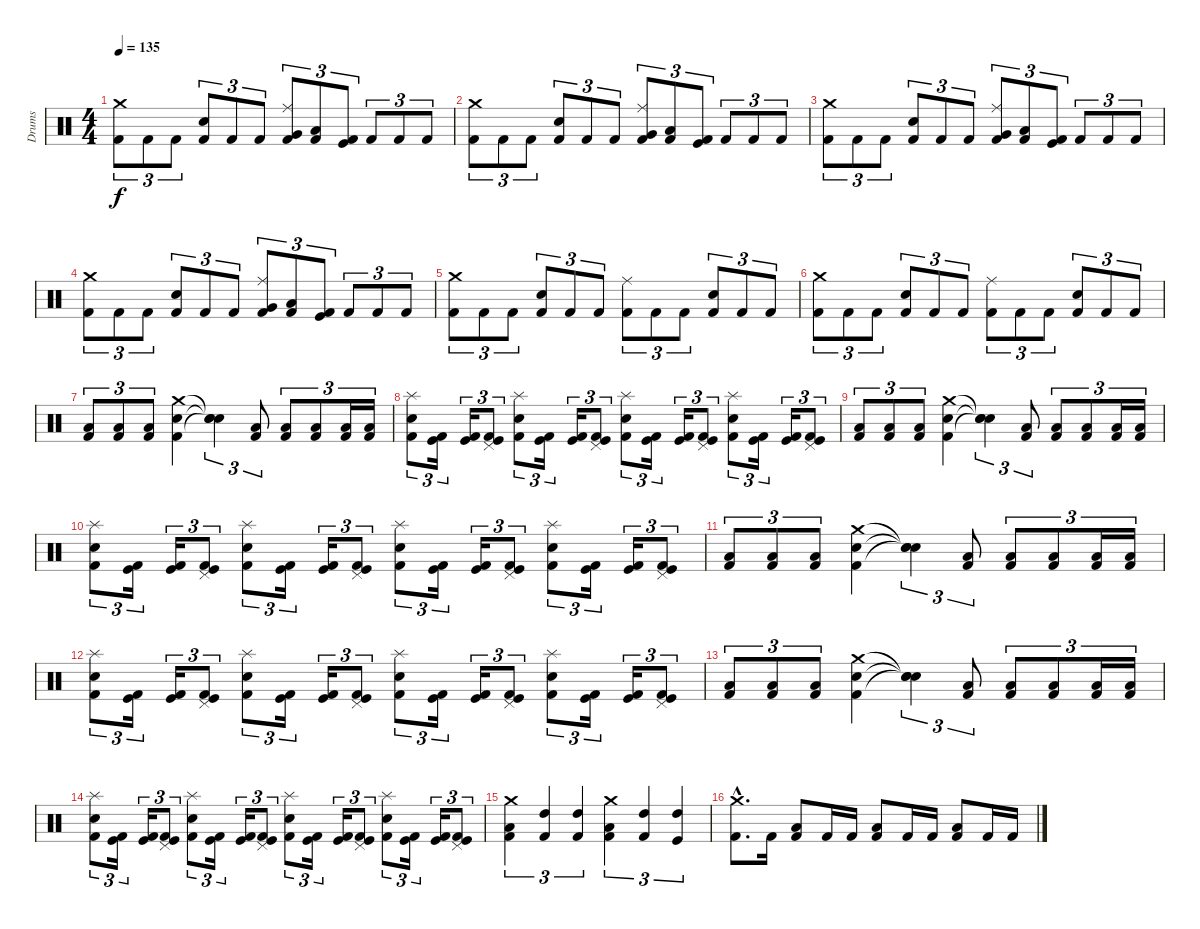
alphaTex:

\track ("Drums" "Drums") {instrument percussion}
\staff {score}
\articulation defaults
\ts (4 4)
\tempo 135
\clef neutral
\ks c
("Crash medium (hit)" "Kick (hit) 2").8{tu (3 2) dy f} "Kick (hit) 2".8{tu (3 2)} "Kick (hit) 2".8{tu (3 2)} ("Snare (hit) 2" "Kick (hit) 2").8{tu (3 2)} "Kick (hit) 2".8{tu (3 2)} "Kick (hit) 2".8{tu (3 2)} ("Ride (middle)" "Very Low Tom (hit)" "Kick (hit) 2").8{tu (3 2)} ("Low Floor Tom (hit)" "Kick (hit) 2").8{tu (3 2)} ("Kick (hit)" "Kick (hit) 2").8{tu (3 2)} "Kick (hit) 2".8{tu (3 2)} "Kick (hit) 2".8{tu (3 2)} "Kick (hit) 2".8{tu (3 2)} |
("Crash medium (hit)" "Kick (hit) 2").8{tu (3 2)} "Kick (hit) 2".8{tu (3 2)} "Kick (hit) 2".8{tu (3 2)} ("Snare (hit) 2" "Kick (hit) 2").8{tu (3 2)} "Kick (hit) 2".8{tu (3 2)} "Kick (hit) 2".8{tu (3 2)} ("Ride (middle)" "Very Low Tom (hit)" "Kick (hit) 2").8{tu (3 2)} ("Low Floor Tom (hit)" "Kick (hit) 2").8{tu (3 2)} ("Kick (hit)" "Kick (hit) 2").8{tu (3 2)} "Kick (hit) 2".8{tu (3 2)} "Kick (hit) 2".8{tu (3 2)} "Kick (hit) 2".8{tu (3 2)} |
("Crash medium (hit)" "Kick (hit) 2").8{tu (3 2)} "Kick (hit) 2".8{tu (3 2)} "Kick (hit) 2".8{tu (3 2)} ("Snare (hit) 2" "Kick (hit) 2").8{tu (3 2)} "Kick (hit) 2".8{tu (3 2)} "Kick (hit) 2".8{tu (3 2)} ("Ride (middle)" "Very Low Tom (hit)" "Kick (hit) 2").8{tu (3 2)} ("Low Floor Tom (hit)" "Kick (hit) 2").8{tu (3 2)} ("Kick (hit)" "Kick (hit) 2").8{tu (3 2)} "Kick (hit) 2".8{tu (3 2)} "Kick (hit) 2".8{tu (3 2)} "Kick (hit) 2".8{tu (3 2)} |
("Crash medium (hit)" "Kick (hit) 2").8{tu (3 2)} "Kick (hit) 2".8{tu (3 2)} "Kick (hit) 2".8{tu (3 2)} ("Snare (hit) 2" "Kick (hit) 2").8{tu (3 2)} "Kick (hit) 2".8{tu (3 2)} "Kick (hit) 2".8{tu (3 2)} ("Ride (middle)" "Very Low Tom (hit)" "Kick (hit) 2").8{tu (3 2)} ("Low Floor Tom (hit)" "Kick (hit) 2").8{tu (3 2)} ("Kick (hit)" "Kick (hit) 2").8{tu (3 2)} "Kick (hit) 2".8{tu (3 2)} "Kick (hit) 2".8{tu (3 2)} "Kick (hit) 2".8{tu (3 2)} |
("Crash medium (hit)" "Kick (hit) 2").8{tu (3 2)} "Kick (hit) 2".8{tu (3 2)} "Kick (hit) 2".8{tu (3 2)} ("Snare (hit) 2" "Kick (hit) 2").8{tu (3 2)} "Kick (hit) 2".8{tu (3 2)} "Kick (hit) 2".8{tu (3 2)} ("Ride (middle)" "Kick (hit) 2").8{tu (3 2)} "Kick (hit) 2".8{tu (3 2)} "Kick (hit) 2".8{tu (3 2)} ("Snare (hit) 2" "Kick (hit) 2").8{tu (3 2)} "Kick (hit) 2".8{tu (3 2)} "Kick (hit) 2".8{tu (3 2)} |
("Crash medium (hit)" "Kick (hit) 2").8{tu (3 2)} "Kick (hit) 2".8{tu (3 2)} "Kick (hit) 2".8{tu (3 2)} ("Snare (hit) 2" "Kick (hit) 2").8{tu (3 2)} "Kick (hit) 2".8{tu (3 2)} "Kick (hit) 2".8{tu (3 2)} ("Ride (middle)" "Kick (hit) 2").8{tu (3 2)} "Kick (hit) 2".8{tu (3 2)} "Kick (hit) 2".8{tu (3 2)} ("Snare (hit) 2" "Kick (hit) 2").8{tu (3 2)} "Kick (hit) 2".8{tu (3 2)} "Kick (hit) 2".8{tu (3 2)} |
("Low Floor Tom (hit)" "Kick (hit) 2").8{tu (3 2)} ("Low Floor Tom (hit)" "Kick (hit) 2").8{tu (3 2)} ("Low Floor Tom (hit)" "Kick (hit) 2").8{tu (3 2)} ("Crash medium (hit)" "Snare (hit) 2" "Kick (hit) 2").4 ("Snare (hit)"{t} "Snare (hit)"{t} "Snare (hit)"{t}).4{tu (3 2)} ("Low Floor Tom (hit)" "Kick (hit) 2").8{tu (3 2)} ("Low Floor Tom (hit)" "Kick (hit) 2").8{tu (3 2)} ("Low Floor Tom (hit)" "Kick (hit) 2").8{tu (3 2)} ("Low Floor Tom (hit)" "Kick (hit) 2").16{tu (3 2)} ("Low Floor Tom (hit)" "Kick (hit) 2").16{tu (3 2)} |
("Splash (hit)" "Snare (hit) 2" "Kick (hit) 2").8{tu (3 2)} ("Kick (hit)" "Kick (hit) 2").16{tu (3 2)} ("Kick (hit)" "Kick (hit) 2").16{tu (3 2)} ("Pedal Hi-Hat (hit)" "Kick (hit)" "Kick (hit) 2").8{tu (3 2)} ("Splash (hit)" "Snare (hit) 2" "Kick (hit) 2").8{tu (3 2)} ("Kick (hit)" "Kick (hit) 2").16{tu (3 2)} ("Kick (hit)" "Kick (hit) 2").16{tu (3 2)} ("Pedal Hi-Hat (hit)" "Kick (hit)" "Kick (hit) 2").8{tu (3 2)} ("Splash (hit)" "Snare (hit) 2" "Kick (hit) 2").8{tu (3 2)} ("Kick (hit)" "Kick (hit) 2").16{tu (3 2)} ("Kick (hit)" "Kick (hit) 2").16{tu (3 2)} ("Pedal Hi-Hat (hit)" "Kick (hit)" "Kick (hit) 2").8{tu (3 2)} ("Splash (hit)" "Snare (hit) 2" "Kick (hit) 2").8{tu (3 2)} ("Kick (hit)" "Kick (hit) 2").16{tu (3 2)} ("Kick (hit)" "Kick (hit) 2").16{tu (3 2)} ("Pedal Hi-Hat (hit)" "Kick (hit)" "Kick (hit) 2").8{tu (3 2)} |
("Low Floor Tom (hit)" "Kick (hit) 2").8{tu (3 2)} ("Low Floor Tom (hit)" "Kick (hit) 2").8{tu (3 2)} ("Low Floor Tom (hit)" "Kick (hit) 2").8{tu (3 2)} ("Crash medium (hit)" "Snare (hit) 2" "Kick (hit) 2").4 ("Snare (hit)"{t} "Snare (hit)"{t} "Snare (hit)"{t}).4{tu (3 2)} ("Low Floor Tom (hit)" "Kick (hit) 2").8{tu (3 2)} ("Low Floor Tom (hit)" "Kick (hit) 2").8{tu (3 2)} ("Low Floor Tom (hit)" "Kick (hit) 2").8{tu (3 2)} ("Low Floor Tom (hit)" "Kick (hit) 2").16{tu (3 2)} ("Low Floor Tom (hit)" "Kick (hit) 2").16{tu (3 2)} |
("Splash (hit)" "Snare (hit) 2" "Kick (hit) 2").8{tu (3 2)} ("Kick (hit)" "Kick (hit) 2").16{tu (3 2)} ("Kick (hit)" "Kick (hit) 2").16{tu (3 2)} ("Pedal Hi-Hat (hit)" "Kick (hit)" "Kick (hit) 2").8{tu (3 2)} ("Splash (hit)" "Snare (hit) 2" "Kick (hit) 2").8{tu (3 2)} ("Kick (hit)" "Kick (hit) 2").16{tu (3 2)} ("Kick (hit)" "Kick (hit) 2").16{tu (3 2)} ("Pedal Hi-Hat (hit)" "Kick (hit)" "Kick (hit) 2").8{tu (3 2)} ("Splash (hit)" "Snare (hit) 2" "Kick (hit) 2").8{tu (3 2)} ("Kick (hit)" "Kick (hit) 2").16{tu (3 2)} ("Kick (hit)" "Kick (hit) 2").16{tu (3 2)} ("Pedal Hi-Hat (hit)" "Kick (hit)" "Kick (hit) 2").8{tu (3 2)} ("Splash (hit)" "Snare (hit) 2" "Kick (hit) 2").8{tu (3 2)} ("Kick (hit)" "Kick (hit) 2").16{tu (3 2)} ("Kick (hit)" "Kick (hit) 2").16{tu (3 2)} ("Pedal Hi-Hat (hit)" "Kick (hit)" "Kick (hit) 2").8{tu (3 2)} |
("Low Floor Tom (hit)" "Kick (hit) 2").8{tu (3 2)} ("Low Floor Tom (hit)" "Kick (hit) 2").8{tu (3 2)} ("Low Floor Tom (hit)" "Kick (hit) 2").8{tu (3 2)} ("Crash medium (hit)" "Snare (hit) 2" "Kick (hit) 2").4 ("Snare (hit)"{t} "Snare (hit)"{t} "Snare (hit)"{t}).4{tu (3 2)} ("Low Floor Tom (hit)" "Kick (hit) 2").8{tu (3 2)} ("Low Floor Tom (hit)" "Kick (hit) 2").8{tu (3 2)} ("Low Floor Tom (hit)" "Kick (hit) 2").8{tu (3 2)} ("Low Floor Tom (hit)" "Kick (hit) 2").16{tu (3 2)} ("Low Floor Tom (hit)" "Kick (hit) 2").16{tu (3 2)} |
("Splash (hit)" "Snare (hit) 2" "Kick (hit) 2").8{tu (3 2)} ("Kick (hit)" "Kick (hit) 2").16{tu (3 2)} ("Kick (hit)" "Kick (hit) 2").16{tu (3 2)} ("Pedal Hi-Hat (hit)" "Kick (hit)" "Kick (hit) 2").8{tu (3 2)} ("Splash (hit)" "Snare (hit) 2" "Kick (hit) 2").8{tu (3 2)} ("Kick (hit)" "Kick (hit) 2").16{tu (3 2)} ("Kick (hit)" "Kick (hit) 2").16{tu (3 2)} ("Pedal Hi-Hat (hit)" "Kick (hit)" "Kick (hit) 2").8{tu (3 2)} ("Splash (hit)" "Snare (hit) 2" "Kick (hit) 2").8{tu (3 2)} ("Kick (hit)" "Kick (hit) 2").16{tu (3 2)} ("Kick (hit)" "Kick (hit) 2").16{tu (3 2)} ("Pedal Hi-Hat (hit)" "Kick (hit)" "Kick (hit) 2").8{tu (3 2)} ("Splash (hit)" "Snare (hit) 2" "Kick (hit) 2").8{tu (3 2)} ("Kick (hit)" "Kick (hit) 2").16{tu (3 2)} ("Kick (hit)" "Kick (hit) 2").16{tu (3 2)} ("Pedal Hi-Hat (hit)" "Kick (hit)" "Kick (hit) 2").8{tu (3 2)} |
("Low Floor Tom (hit)" "Kick (hit) 2").8{tu (3 2)} ("Low Floor Tom (hit)" "Kick (hit) 2").8{tu (3 2)} ("Low Floor Tom (hit)" "Kick (hit) 2").8{tu (3 2)} ("Crash medium (hit)" "Snare (hit) 2" "Kick (hit) 2").4 ("Snare (hit)"{t} "Snare (hit)"{t} "Snare (hit)"{t}).4{tu (3 2)} ("Low Floor Tom (hit)" "Kick (hit) 2").8{tu (3 2)} ("Low Floor Tom (hit)" "Kick (hit) 2").8{tu (3 2)} ("Low Floor Tom (hit)" "Kick (hit) 2").8{tu (3 2)} ("Low Floor Tom (hit)" "Kick (hit) 2").16{tu (3 2)} ("Low Floor Tom (hit)" "Kick (hit) 2").16{tu (3 2)} |
("Splash (hit)" "Snare (hit) 2" "Kick (hit) 2").8{tu (3 2)} ("Kick (hit)" "Kick (hit) 2").16{tu (3 2)} ("Kick (hit)" "Kick (hit) 2").16{tu (3 2)} ("Pedal Hi-Hat (hit)" "Kick (hit)" "Kick (hit) 2").8{tu (3 2)} ("Splash (hit)" "Snare (hit) 2" "Kick (hit) 2").8{tu (3 2)} ("Kick (hit)" "Kick (hit) 2").16{tu (3 2)} ("Kick (hit)" "Kick (hit) 2").16{tu (3 2)} ("Pedal Hi-Hat (hit)" "Kick (hit)" "Kick (hit) 2").8{tu (3 2)} ("Splash (hit)" "Snare (hit) 2" "Kick (hit) 2").8{tu (3 2)} ("Kick (hit)" "Kick (hit) 2").16{tu (3 2)} ("Kick (hit)" "Kick (hit) 2").16{tu (3 2)} ("Pedal Hi-Hat (hit)" "Kick (hit)" "Kick (hit) 2").8{tu (3 2)} ("Splash (hit)" "Snare (hit) 2" "Kick (hit) 2").8{tu (3 2)} ("Kick (hit)" "Kick (hit) 2").16{tu (3 2)} ("Kick (hit)" "Kick (hit) 2").16{tu (3 2)} ("Pedal Hi-Hat (hit)" "Kick (hit)" "Kick (hit) 2").8{tu (3 2)} |
("Crash medium (hit)" "Low Floor Tom (hit)" "Kick (hit) 2").4{tu (3 2)} ("High Tom (hit)" "Kick (hit) 2").4{tu (3 2)} ("High Tom (hit)" "Kick (hit) 2").4{tu (3 2)} ("Crash medium (hit)" "Low Floor Tom (hit)" "Kick (hit) 2").4{tu (3 2)} ("High Tom (hit)" "Kick (hit) 2").4{tu (3 2)} ("High Tom (hit)" "Kick (hit)").4{tu (3 2)} |
("Crash medium (hit)"{hac} "Kick (hit) 2"{hac}).8{d} "Kick (hit) 2".16 ("Low Tom (hit)" "Kick (hit) 2").8 "Kick (hit) 2".16 "Kick (hit) 2".16 ("Low Tom (hit)" "Kick (hit) 2").8 "Kick (hit) 2".16 "Kick (hit) 2".16 ("Low Tom (hit)" "Kick (hit) 2").8 "Kick (hit) 2".16 "Kick (hit) 2".16
